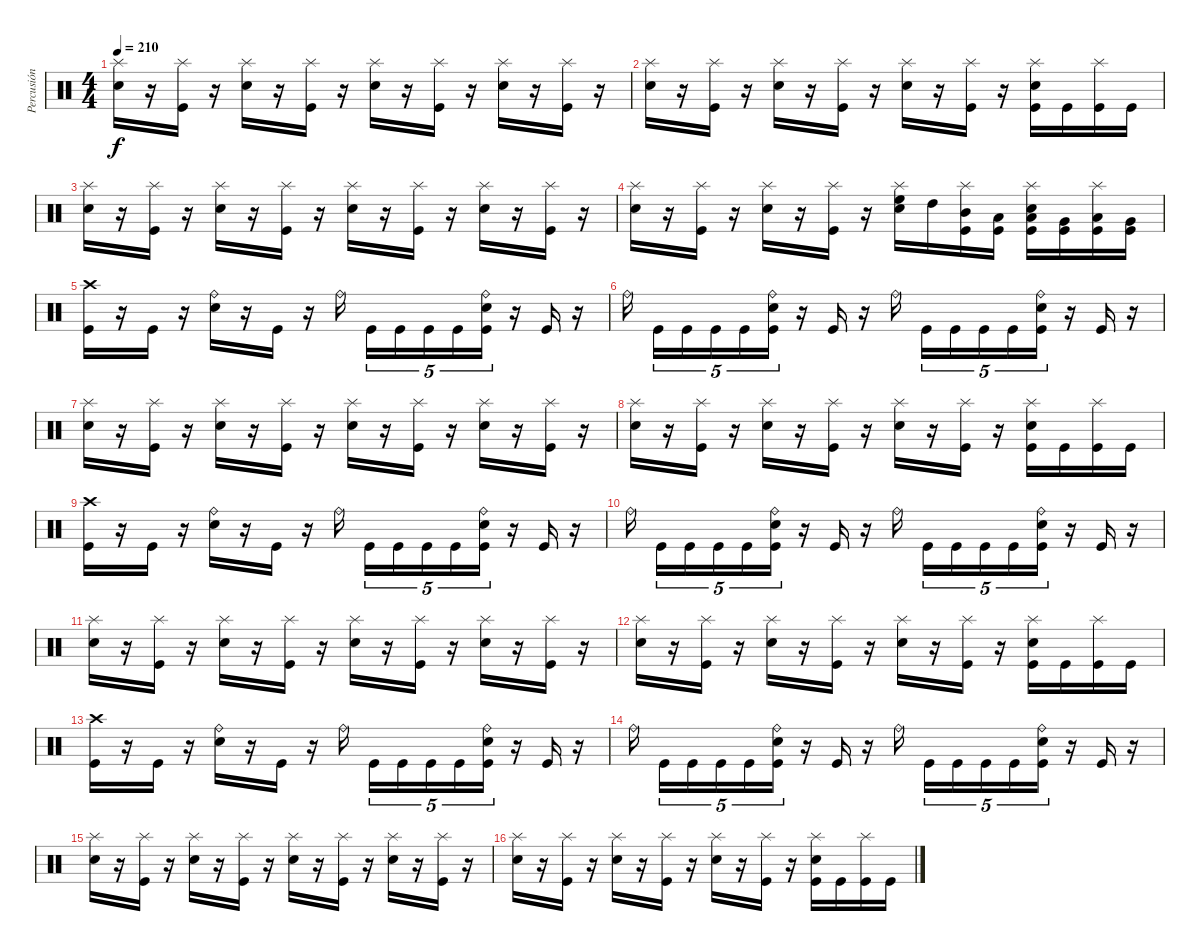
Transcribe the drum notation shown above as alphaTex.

\track ("Percusión" "Percusión") {instrument percussion}
\staff {score}
\articulation defaults
\ts (4 4)
\tempo 210
\clef neutral
\ks c
("Splash (hit)" "Snare (hit) 2").16{dy f} r.16 ("Splash (hit)" "Kick (hit)").16 r.16 ("Splash (hit)" "Snare (hit) 2").16 r.16 ("Splash (hit)" "Kick (hit)").16 r.16 ("Splash (hit)" "Snare (hit) 2").16 r.16 ("Splash (hit)" "Kick (hit)").16 r.16 ("Splash (hit)" "Snare (hit) 2").16 r.16 ("Splash (hit)" "Kick (hit)").16 r.16 |
("Splash (hit)" "Snare (hit) 2").16 r.16 ("Splash (hit)" "Kick (hit)").16 r.16 ("Splash (hit)" "Snare (hit) 2").16 r.16 ("Splash (hit)" "Kick (hit)").16 r.16 ("Splash (hit)" "Snare (hit) 2").16 r.16 ("Splash (hit)" "Kick (hit)").16 r.16 ("Splash (hit)" "Snare (hit) 2" "Kick (hit)").16 "Kick (hit)".16 ("Splash (hit)" "Kick (hit)").16 "Kick (hit)".16 |
("Splash (hit)" "Snare (hit) 2").16 r.16 ("Splash (hit)" "Kick (hit)").16 r.16 ("Splash (hit)" "Snare (hit) 2").16 r.16 ("Splash (hit)" "Kick (hit)").16 r.16 ("Splash (hit)" "Snare (hit) 2").16 r.16 ("Splash (hit)" "Kick (hit)").16 r.16 ("Splash (hit)" "Snare (hit) 2").16 r.16 ("Splash (hit)" "Kick (hit)").16 r.16 |
("Splash (hit)" "Snare (hit) 2").16 r.16 ("Splash (hit)" "Kick (hit)").16 r.16 ("Splash (hit)" "Snare (hit) 2").16 r.16 ("Splash (hit)" "Kick (hit)").16 r.16 ("Splash (hit)" "High Floor Tom (hit)" "Snare (hit) 2").16 "High Tom (hit)".16 ("Splash (hit)" "Mid Tom (hit)" "Kick (hit)").16 ("Low Tom (hit)" "Kick (hit)").16 ("Splash (hit)" "Low Tom (hit)" "Snare (hit) 2" "Kick (hit)").16 ("Very Low Tom (hit)" "Kick (hit)").16 ("Splash (hit)" "Low Floor Tom (hit)" "Kick (hit)").16 ("Very Low Tom (hit)" "Kick (hit)").16 |
("Crash high (hit)" "Kick (hit)").16 r.16 "Kick (hit)".16 r.16 ("Ride (bell)" "Snare (hit) 2").16 r.16 "Kick (hit)".16 r.16 "Ride (bell)".16{beam splitsecondary} "Kick (hit)".16{tu (5 4)} "Kick (hit)".16{tu (5 4)} "Kick (hit)".16{tu (5 4)} "Kick (hit)".16{tu (5 4)} ("Ride (bell)" "Snare (hit) 2" "Kick (hit)").16{tu (5 4)} r.16 "Kick (hit)".16 r.16 |
"Ride (bell)".16{beam splitsecondary} "Kick (hit)".16{tu (5 4)} "Kick (hit)".16{tu (5 4)} "Kick (hit)".16{tu (5 4)} "Kick (hit)".16{tu (5 4)} ("Ride (bell)" "Snare (hit) 2" "Kick (hit)").16{tu (5 4)} r.16 "Kick (hit)".16 r.16 "Ride (bell)".16{beam splitsecondary} "Kick (hit)".16{tu (5 4)} "Kick (hit)".16{tu (5 4)} "Kick (hit)".16{tu (5 4)} "Kick (hit)".16{tu (5 4)} ("Ride (bell)" "Snare (hit) 2" "Kick (hit)").16{tu (5 4)} r.16 "Kick (hit)".16 r.16 |
("Splash (hit)" "Snare (hit) 2").16 r.16 ("Splash (hit)" "Kick (hit)").16 r.16 ("Splash (hit)" "Snare (hit) 2").16 r.16 ("Splash (hit)" "Kick (hit)").16 r.16 ("Splash (hit)" "Snare (hit) 2").16 r.16 ("Splash (hit)" "Kick (hit)").16 r.16 ("Splash (hit)" "Snare (hit) 2").16 r.16 ("Splash (hit)" "Kick (hit)").16 r.16 |
("Splash (hit)" "Snare (hit) 2").16 r.16 ("Splash (hit)" "Kick (hit)").16 r.16 ("Splash (hit)" "Snare (hit) 2").16 r.16 ("Splash (hit)" "Kick (hit)").16 r.16 ("Splash (hit)" "Snare (hit) 2").16 r.16 ("Splash (hit)" "Kick (hit)").16 r.16 ("Splash (hit)" "Snare (hit) 2" "Kick (hit)").16 "Kick (hit)".16 ("Splash (hit)" "Kick (hit)").16 "Kick (hit)".16 |
("Crash high (hit)" "Kick (hit)").16 r.16 "Kick (hit)".16 r.16 ("Ride (bell)" "Snare (hit) 2").16 r.16 "Kick (hit)".16 r.16 "Ride (bell)".16{beam splitsecondary} "Kick (hit)".16{tu (5 4)} "Kick (hit)".16{tu (5 4)} "Kick (hit)".16{tu (5 4)} "Kick (hit)".16{tu (5 4)} ("Ride (bell)" "Snare (hit) 2" "Kick (hit)").16{tu (5 4)} r.16 "Kick (hit)".16 r.16 |
"Ride (bell)".16{beam splitsecondary} "Kick (hit)".16{tu (5 4)} "Kick (hit)".16{tu (5 4)} "Kick (hit)".16{tu (5 4)} "Kick (hit)".16{tu (5 4)} ("Ride (bell)" "Snare (hit) 2" "Kick (hit)").16{tu (5 4)} r.16 "Kick (hit)".16 r.16 "Ride (bell)".16{beam splitsecondary} "Kick (hit)".16{tu (5 4)} "Kick (hit)".16{tu (5 4)} "Kick (hit)".16{tu (5 4)} "Kick (hit)".16{tu (5 4)} ("Ride (bell)" "Snare (hit) 2" "Kick (hit)").16{tu (5 4)} r.16 "Kick (hit)".16 r.16 |
("Splash (hit)" "Snare (hit) 2").16 r.16 ("Splash (hit)" "Kick (hit)").16 r.16 ("Splash (hit)" "Snare (hit) 2").16 r.16 ("Splash (hit)" "Kick (hit)").16 r.16 ("Splash (hit)" "Snare (hit) 2").16 r.16 ("Splash (hit)" "Kick (hit)").16 r.16 ("Splash (hit)" "Snare (hit) 2").16 r.16 ("Splash (hit)" "Kick (hit)").16 r.16 |
("Splash (hit)" "Snare (hit) 2").16 r.16 ("Splash (hit)" "Kick (hit)").16 r.16 ("Splash (hit)" "Snare (hit) 2").16 r.16 ("Splash (hit)" "Kick (hit)").16 r.16 ("Splash (hit)" "Snare (hit) 2").16 r.16 ("Splash (hit)" "Kick (hit)").16 r.16 ("Splash (hit)" "Snare (hit) 2" "Kick (hit)").16 "Kick (hit)".16 ("Splash (hit)" "Kick (hit)").16 "Kick (hit)".16 |
("Crash high (hit)" "Kick (hit)").16 r.16 "Kick (hit)".16 r.16 ("Ride (bell)" "Snare (hit) 2").16 r.16 "Kick (hit)".16 r.16 "Ride (bell)".16{beam splitsecondary} "Kick (hit)".16{tu (5 4)} "Kick (hit)".16{tu (5 4)} "Kick (hit)".16{tu (5 4)} "Kick (hit)".16{tu (5 4)} ("Ride (bell)" "Snare (hit) 2" "Kick (hit)").16{tu (5 4)} r.16 "Kick (hit)".16 r.16 |
"Ride (bell)".16{beam splitsecondary} "Kick (hit)".16{tu (5 4)} "Kick (hit)".16{tu (5 4)} "Kick (hit)".16{tu (5 4)} "Kick (hit)".16{tu (5 4)} ("Ride (bell)" "Snare (hit) 2" "Kick (hit)").16{tu (5 4)} r.16 "Kick (hit)".16 r.16 "Ride (bell)".16{beam splitsecondary} "Kick (hit)".16{tu (5 4)} "Kick (hit)".16{tu (5 4)} "Kick (hit)".16{tu (5 4)} "Kick (hit)".16{tu (5 4)} ("Ride (bell)" "Snare (hit) 2" "Kick (hit)").16{tu (5 4)} r.16 "Kick (hit)".16 r.16 |
("Splash (hit)" "Snare (hit) 2").16 r.16 ("Splash (hit)" "Kick (hit)").16 r.16 ("Splash (hit)" "Snare (hit) 2").16 r.16 ("Splash (hit)" "Kick (hit)").16 r.16 ("Splash (hit)" "Snare (hit) 2").16 r.16 ("Splash (hit)" "Kick (hit)").16 r.16 ("Splash (hit)" "Snare (hit) 2").16 r.16 ("Splash (hit)" "Kick (hit)").16 r.16 |
("Splash (hit)" "Snare (hit) 2").16 r.16 ("Splash (hit)" "Kick (hit)").16 r.16 ("Splash (hit)" "Snare (hit) 2").16 r.16 ("Splash (hit)" "Kick (hit)").16 r.16 ("Splash (hit)" "Snare (hit) 2").16 r.16 ("Splash (hit)" "Kick (hit)").16 r.16 ("Splash (hit)" "Snare (hit) 2" "Kick (hit)").16 "Kick (hit)".16 ("Splash (hit)" "Kick (hit)").16 "Kick (hit)".16
